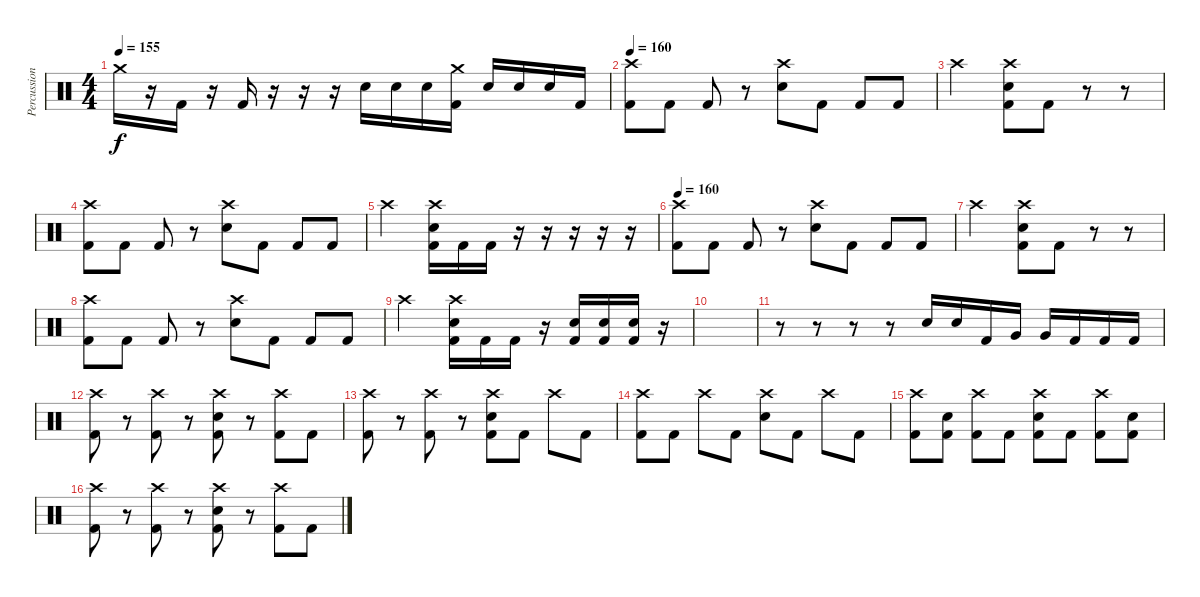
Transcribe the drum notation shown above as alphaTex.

\track ("Percussion" "Percussion") {instrument percussion}
\staff {score}
\articulation defaults
\ts (4 4)
\tempo 155
\clef neutral
\ks c "Crash medium (hit)".16{dy f}
r.16 "Kick (hit) 2".16 r.16 "Kick (hit) 2".16 r.16 r.16 r.16 "Electric Snare (hit)".16 "Electric Snare (hit)".16 "Electric Snare (hit)".16 ("Crash medium (hit)" "Kick (hit) 2").16 "Electric Snare (hit)".16 "Electric Snare (hit)".16 "Electric Snare (hit)".16 "Kick (hit) 2".16 |
\tempo 160
("Crash high (hit)" "Kick (hit) 2").8 "Kick (hit) 2".8 "Kick (hit) 2".8 r.8 ("Crash high (hit)" "Electric Snare (hit)").8 "Kick (hit) 2".8 "Kick (hit) 2".8 "Kick (hit) 2".8 |
"Crash high (hit)".2 ("Crash high (hit)" "Electric Snare (hit)" "Kick (hit) 2").8 "Kick (hit) 2".8 r.8 r.8 |
("Crash high (hit)" "Kick (hit) 2").8 "Kick (hit) 2".8 "Kick (hit) 2".8 r.8 ("Crash high (hit)" "Electric Snare (hit)").8 "Kick (hit) 2".8 "Kick (hit) 2".8 "Kick (hit) 2".8 |
"Crash high (hit)".2 ("Crash high (hit)" "Electric Snare (hit)" "Kick (hit) 2").16 "Kick (hit) 2".16 "Kick (hit) 2".16 r.16 r.16 r.16 r.16 r.16 |
\tempo 160
("Crash high (hit)" "Kick (hit) 2").8 "Kick (hit) 2".8 "Kick (hit) 2".8 r.8 ("Crash high (hit)" "Electric Snare (hit)").8 "Kick (hit) 2".8 "Kick (hit) 2".8 "Kick (hit) 2".8 |
"Crash high (hit)".2 ("Crash high (hit)" "Electric Snare (hit)" "Kick (hit) 2").8 "Kick (hit) 2".8 r.8 r.8 |
("Crash high (hit)" "Kick (hit) 2").8 "Kick (hit) 2".8 "Kick (hit) 2".8 r.8 ("Crash high (hit)" "Electric Snare (hit)").8 "Kick (hit) 2".8 "Kick (hit) 2".8 "Kick (hit) 2".8 |
"Crash high (hit)".2 ("Crash high (hit)" "Electric Snare (hit)" "Kick (hit) 2").16 "Kick (hit) 2".16 "Kick (hit) 2".16 r.16 ("Electric Snare (hit)" "Kick (hit) 2").16 ("Electric Snare (hit)" "Kick (hit) 2").16 ("Electric Snare (hit)" "Kick (hit) 2").16 r.16 |
|
r.8 r.8 r.8 r.8 "Electric Snare (hit)".16 "Electric Snare (hit)".16 "Kick (hit) 2".16 "Very Low Tom (hit)".16 "Very Low Tom (hit)".16 "Kick (hit) 2".16 "Kick (hit) 2".16 "Kick (hit) 2".16 |
("Crash high (hit)" "Kick (hit) 2").8 r.8 ("Crash high (hit)" "Kick (hit) 2").8 r.8 ("Crash high (hit)" "Electric Snare (hit)" "Kick (hit) 2").8 r.8 ("Crash high (hit)" "Kick (hit) 2").8 "Kick (hit) 2".8 |
("Crash high (hit)" "Kick (hit) 2").8 r.8 ("Crash high (hit)" "Kick (hit) 2").8 r.8 ("Crash high (hit)" "Electric Snare (hit)" "Kick (hit) 2").8 "Kick (hit) 2".8 "Crash high (hit)".8 "Kick (hit) 2".8 |
("Crash high (hit)" "Kick (hit) 2").8 "Kick (hit) 2".8 "Crash high (hit)".8 "Kick (hit) 2".8 ("Crash high (hit)" "Electric Snare (hit)").8 "Kick (hit) 2".8 "Crash high (hit)".8 "Kick (hit) 2".8 |
("Crash high (hit)" "Kick (hit) 2").8 ("Electric Snare (hit)" "Kick (hit) 2").8 ("Crash high (hit)" "Kick (hit) 2").8 "Kick (hit) 2".8 ("Crash high (hit)" "Electric Snare (hit)" "Kick (hit) 2").8 "Kick (hit) 2".8 ("Crash high (hit)" "Kick (hit) 2").8 ("Electric Snare (hit)" "Kick (hit) 2").8 |
("Crash high (hit)" "Kick (hit) 2").8 r.8 ("Crash high (hit)" "Kick (hit) 2").8 r.8 ("Crash high (hit)" "Electric Snare (hit)" "Kick (hit) 2").8 r.8 ("Crash high (hit)" "Kick (hit) 2").8 "Kick (hit) 2".8
